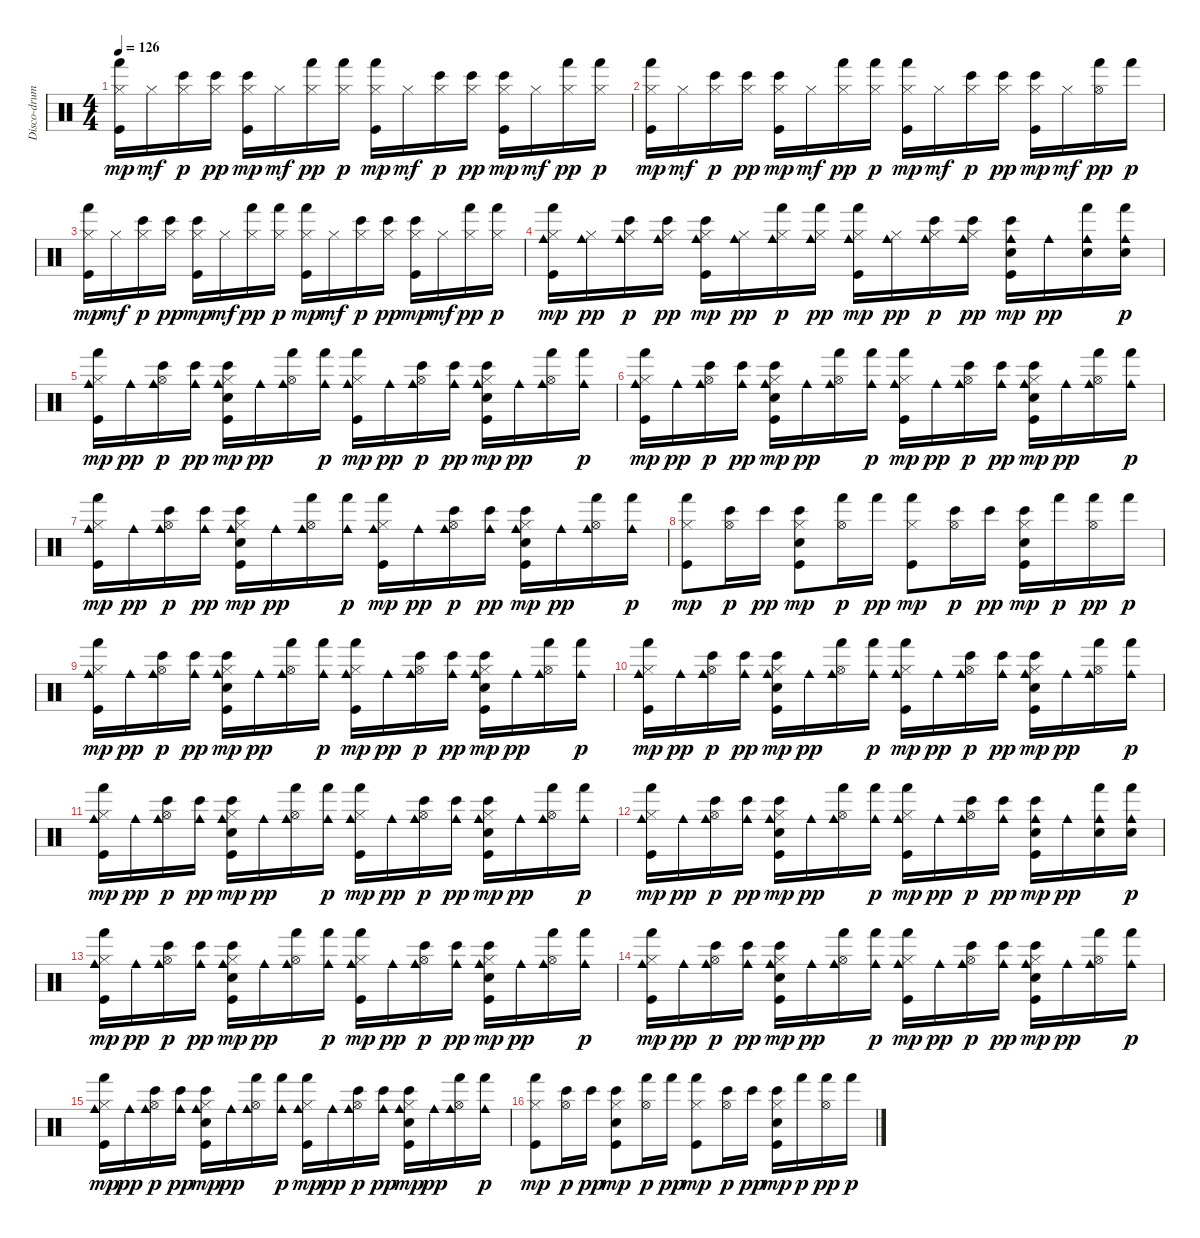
\track ("Disco-drums !" "Disco-drum") {instrument percussion}
\staff {score}
\articulation defaults
\ts (4 4)
\tempo 126
\clef neutral
\ks c
("Hi-Hat (closed)" "Kick (hit)" "Hand (hit)").16{dy mp} "Hi-Hat (closed)".16{dy mf} ("Hi-Hat (closed)" "Bongo High (hit)").16{dy p} ("Hi-Hat (closed)" "Bongo High (hit)").16{dy pp} ("Hi-Hat (closed)" "Kick (hit)" "Bongo High (hit)").16{dy mp} "Hi-Hat (closed)".16{dy mf} ("Hi-Hat (closed)" "Hand (hit)").16{dy pp} ("Hi-Hat (closed)" "Hand (hit)").16{dy p} ("Hi-Hat (closed)" "Kick (hit)" "Hand (hit)").16{dy mp} "Hi-Hat (closed)".16{dy mf} ("Hi-Hat (closed)" "Bongo High (hit)").16{dy p} ("Hi-Hat (closed)" "Bongo High (hit)").16{dy pp} ("Hi-Hat (closed)" "Kick (hit)" "Bongo High (hit)").16{dy mp} "Hi-Hat (closed)".16{dy mf} ("Hi-Hat (closed)" "Hand (hit)").16{dy pp} ("Hi-Hat (closed)" "Hand (hit)").16{dy p} |
("Hi-Hat (closed)" "Kick (hit)" "Hand (hit)").16{dy mp} "Hi-Hat (closed)".16{dy mf} ("Hi-Hat (closed)" "Bongo High (hit)").16{dy p} ("Hi-Hat (closed)" "Bongo High (hit)").16{dy pp} ("Hi-Hat (closed)" "Kick (hit)" "Bongo High (hit)").16{dy mp} "Hi-Hat (closed)".16{dy mf} ("Hi-Hat (closed)" "Hand (hit)").16{dy pp} ("Hi-Hat (closed)" "Hand (hit)").16{dy p} ("Hi-Hat (closed)" "Kick (hit)" "Hand (hit)").16{dy mp} "Hi-Hat (closed)".16{dy mf} ("Hi-Hat (closed)" "Bongo High (hit)").16{dy p} ("Hi-Hat (closed)" "Bongo High (hit)").16{dy pp} ("Hi-Hat (closed)" "Kick (hit)" "Bongo High (hit)").16{dy mp} "Hi-Hat (closed)".16{dy mf} ("Hi-Hat (open)" "Hand (hit)").16{dy pp} "Hand (hit)".16{dy p} |
("Hi-Hat (closed)" "Kick (hit)" "Hand (hit)").16{dy mp} "Hi-Hat (closed)".16{dy mf} ("Hi-Hat (closed)" "Bongo High (hit)").16{dy p} ("Hi-Hat (closed)" "Bongo High (hit)").16{dy pp} ("Hi-Hat (closed)" "Kick (hit)" "Bongo High (hit)").16{dy mp} "Hi-Hat (closed)".16{dy mf} ("Hi-Hat (closed)" "Hand (hit)").16{dy pp} ("Hi-Hat (closed)" "Hand (hit)").16{dy p} ("Hi-Hat (closed)" "Kick (hit)" "Hand (hit)").16{dy mp} "Hi-Hat (closed)".16{dy mf} ("Hi-Hat (closed)" "Bongo High (hit)").16{dy p} ("Hi-Hat (closed)" "Bongo High (hit)").16{dy pp} ("Hi-Hat (closed)" "Kick (hit)" "Bongo High (hit)").16{dy mp} "Hi-Hat (closed)".16{dy mf} ("Hi-Hat (closed)" "Hand (hit)").16{dy pp} ("Hi-Hat (closed)" "Hand (hit)").16{dy p} |
("Hi-Hat (closed)" "Kick (hit)" "Cowbell medium (hit)" "Hand (hit)").16{dy mp} ("Hi-Hat (closed)" "Cowbell medium (hit)").16{dy pp} ("Hi-Hat (closed)" "Cowbell medium (hit)" "Bongo High (hit)").16{dy p} ("Hi-Hat (closed)" "Cowbell medium (hit)" "Bongo High (hit)").16{dy pp} ("Hi-Hat (closed)" "Kick (hit)" "Cowbell medium (hit)" "Bongo High (hit)").16{dy mp} ("Hi-Hat (closed)" "Cowbell medium (hit)").16{dy pp} ("Hi-Hat (closed)" "Cowbell medium (hit)" "Hand (hit)").16{dy p} ("Hi-Hat (closed)" "Cowbell medium (hit)" "Hand (hit)").16{dy pp} ("Hi-Hat (closed)" "Kick (hit)" "Cowbell medium (hit)" "Hand (hit)").16{dy mp} ("Hi-Hat (closed)" "Cowbell medium (hit)").16{dy pp} ("Hi-Hat (closed)" "Cowbell medium (hit)" "Bongo High (hit)").16{dy p} ("Hi-Hat (closed)" "Cowbell medium (hit)" "Bongo High (hit)").16{dy pp} ("Kick (hit)" "Snare (hit) 2" "Cowbell medium (hit)" "Bongo High (hit)").16{dy mp} "Cowbell medium (hit)".16{dy pp} ("Snare (hit) 2" "Cowbell medium (hit)" "Hand (hit)").16 ("Snare (hit) 2" "Cowbell medium (hit)" "Hand (hit)").16{dy p} |
("Hi-Hat (closed)" "Kick (hit)" "Cowbell medium (hit)" "Hand (hit)").16{dy mp} "Cowbell medium (hit)".16{dy pp} ("Hi-Hat (open)" "Cowbell medium (hit)" "Bongo High (hit)").16{dy p} ("Cowbell medium (hit)" "Bongo High (hit)").16{dy pp} ("Hi-Hat (closed)" "Kick (hit)" "Snare (hit) 2" "Cowbell medium (hit)" "Bongo High (hit)").16{dy mp} "Cowbell medium (hit)".16{dy pp} ("Hi-Hat (open)" "Cowbell medium (hit)" "Hand (hit)").16 ("Cowbell medium (hit)" "Hand (hit)").16{dy p} ("Hi-Hat (closed)" "Kick (hit)" "Cowbell medium (hit)" "Hand (hit)").16{dy mp} "Cowbell medium (hit)".16{dy pp} ("Hi-Hat (open)" "Cowbell medium (hit)" "Bongo High (hit)").16{dy p} ("Cowbell medium (hit)" "Bongo High (hit)").16{dy pp} ("Hi-Hat (closed)" "Kick (hit)" "Snare (hit) 2" "Cowbell medium (hit)" "Bongo High (hit)").16{dy mp} "Cowbell medium (hit)".16{dy pp} ("Hi-Hat (open)" "Cowbell medium (hit)" "Hand (hit)").16 ("Cowbell medium (hit)" "Hand (hit)").16{dy p} |
("Hi-Hat (closed)" "Kick (hit)" "Cowbell medium (hit)" "Hand (hit)").16{dy mp} "Cowbell medium (hit)".16{dy pp} ("Hi-Hat (open)" "Cowbell medium (hit)" "Bongo High (hit)").16{dy p} ("Cowbell medium (hit)" "Bongo High (hit)").16{dy pp} ("Hi-Hat (closed)" "Kick (hit)" "Snare (hit) 2" "Cowbell medium (hit)" "Bongo High (hit)").16{dy mp} "Cowbell medium (hit)".16{dy pp} ("Hi-Hat (open)" "Cowbell medium (hit)" "Hand (hit)").16 ("Cowbell medium (hit)" "Hand (hit)").16{dy p} ("Hi-Hat (closed)" "Kick (hit)" "Cowbell medium (hit)" "Hand (hit)").16{dy mp} "Cowbell medium (hit)".16{dy pp} ("Hi-Hat (open)" "Cowbell medium (hit)" "Bongo High (hit)").16{dy p} ("Cowbell medium (hit)" "Bongo High (hit)").16{dy pp} ("Hi-Hat (closed)" "Kick (hit)" "Snare (hit) 2" "Cowbell medium (hit)" "Bongo High (hit)").16{dy mp} "Cowbell medium (hit)".16{dy pp} ("Hi-Hat (open)" "Cowbell medium (hit)" "Hand (hit)").16 ("Cowbell medium (hit)" "Hand (hit)").16{dy p} |
("Hi-Hat (closed)" "Kick (hit)" "Cowbell medium (hit)" "Hand (hit)").16{dy mp} "Cowbell medium (hit)".16{dy pp} ("Hi-Hat (open)" "Cowbell medium (hit)" "Bongo High (hit)").16{dy p} ("Cowbell medium (hit)" "Bongo High (hit)").16{dy pp} ("Hi-Hat (closed)" "Kick (hit)" "Snare (hit) 2" "Cowbell medium (hit)" "Bongo High (hit)").16{dy mp} "Cowbell medium (hit)".16{dy pp} ("Hi-Hat (open)" "Cowbell medium (hit)" "Hand (hit)").16 ("Cowbell medium (hit)" "Hand (hit)").16{dy p} ("Hi-Hat (closed)" "Kick (hit)" "Cowbell medium (hit)" "Hand (hit)").16{dy mp} "Cowbell medium (hit)".16{dy pp} ("Hi-Hat (open)" "Cowbell medium (hit)" "Bongo High (hit)").16{dy p} ("Cowbell medium (hit)" "Bongo High (hit)").16{dy pp} ("Hi-Hat (closed)" "Kick (hit)" "Snare (hit) 2" "Cowbell medium (hit)" "Bongo High (hit)").16{dy mp} "Cowbell medium (hit)".16{dy pp} ("Hi-Hat (open)" "Cowbell medium (hit)" "Hand (hit)").16 ("Cowbell medium (hit)" "Hand (hit)").16{dy p} |
("Hi-Hat (closed)" "Kick (hit)" "Hand (hit)").8{dy mp} ("Hi-Hat (open)" "Bongo High (hit)").16{dy p} "Bongo High (hit)".16{dy pp} ("Hi-Hat (closed)" "Kick (hit)" "Snare (hit) 2" "Bongo High (hit)").8{dy mp} ("Hi-Hat (open)" "Hand (hit)").16{dy p} "Hand (hit)".16{dy pp} ("Hi-Hat (closed)" "Kick (hit)" "Hand (hit)").8{dy mp} ("Hi-Hat (open)" "Bongo High (hit)").16{dy p} "Bongo High (hit)".16{dy pp} ("Hi-Hat (closed)" "Kick (hit)" "Snare (hit) 2" "Bongo High (hit)").16{dy mp} "Hand (hit)".16{dy p} ("Hi-Hat (open)" "Hand (hit)").16{dy pp} "Hand (hit)".16{dy p} |
("Hi-Hat (closed)" "Kick (hit)" "Cowbell medium (hit)" "Hand (hit)").16{dy mp} "Cowbell medium (hit)".16{dy pp} ("Hi-Hat (open)" "Cowbell medium (hit)" "Bongo High (hit)").16{dy p} ("Cowbell medium (hit)" "Bongo High (hit)").16{dy pp} ("Hi-Hat (closed)" "Kick (hit)" "Snare (hit) 2" "Cowbell medium (hit)" "Bongo High (hit)").16{dy mp} "Cowbell medium (hit)".16{dy pp} ("Hi-Hat (open)" "Cowbell medium (hit)" "Hand (hit)").16 ("Cowbell medium (hit)" "Hand (hit)").16{dy p} ("Hi-Hat (closed)" "Kick (hit)" "Cowbell medium (hit)" "Hand (hit)").16{dy mp} "Cowbell medium (hit)".16{dy pp} ("Hi-Hat (open)" "Cowbell medium (hit)" "Bongo High (hit)").16{dy p} ("Cowbell medium (hit)" "Bongo High (hit)").16{dy pp} ("Hi-Hat (closed)" "Kick (hit)" "Snare (hit) 2" "Cowbell medium (hit)" "Bongo High (hit)").16{dy mp} "Cowbell medium (hit)".16{dy pp} ("Hi-Hat (open)" "Cowbell medium (hit)" "Hand (hit)").16 ("Cowbell medium (hit)" "Hand (hit)").16{dy p} |
("Hi-Hat (closed)" "Kick (hit)" "Cowbell medium (hit)" "Hand (hit)").16{dy mp} "Cowbell medium (hit)".16{dy pp} ("Hi-Hat (open)" "Cowbell medium (hit)" "Bongo High (hit)").16{dy p} ("Cowbell medium (hit)" "Bongo High (hit)").16{dy pp} ("Hi-Hat (closed)" "Kick (hit)" "Snare (hit) 2" "Cowbell medium (hit)" "Bongo High (hit)").16{dy mp} "Cowbell medium (hit)".16{dy pp} ("Hi-Hat (open)" "Cowbell medium (hit)" "Hand (hit)").16 ("Cowbell medium (hit)" "Hand (hit)").16{dy p} ("Hi-Hat (closed)" "Kick (hit)" "Cowbell medium (hit)" "Hand (hit)").16{dy mp} "Cowbell medium (hit)".16{dy pp} ("Hi-Hat (open)" "Cowbell medium (hit)" "Bongo High (hit)").16{dy p} ("Cowbell medium (hit)" "Bongo High (hit)").16{dy pp} ("Hi-Hat (closed)" "Kick (hit)" "Snare (hit) 2" "Cowbell medium (hit)" "Bongo High (hit)").16{dy mp} "Cowbell medium (hit)".16{dy pp} ("Hi-Hat (open)" "Cowbell medium (hit)" "Hand (hit)").16 ("Cowbell medium (hit)" "Hand (hit)").16{dy p} |
("Hi-Hat (closed)" "Kick (hit)" "Cowbell medium (hit)" "Hand (hit)").16{dy mp} "Cowbell medium (hit)".16{dy pp} ("Hi-Hat (open)" "Cowbell medium (hit)" "Bongo High (hit)").16{dy p} ("Cowbell medium (hit)" "Bongo High (hit)").16{dy pp} ("Hi-Hat (closed)" "Kick (hit)" "Snare (hit) 2" "Cowbell medium (hit)" "Bongo High (hit)").16{dy mp} "Cowbell medium (hit)".16{dy pp} ("Hi-Hat (open)" "Cowbell medium (hit)" "Hand (hit)").16 ("Cowbell medium (hit)" "Hand (hit)").16{dy p} ("Hi-Hat (closed)" "Kick (hit)" "Cowbell medium (hit)" "Hand (hit)").16{dy mp} "Cowbell medium (hit)".16{dy pp} ("Hi-Hat (open)" "Cowbell medium (hit)" "Bongo High (hit)").16{dy p} ("Cowbell medium (hit)" "Bongo High (hit)").16{dy pp} ("Hi-Hat (closed)" "Kick (hit)" "Snare (hit) 2" "Cowbell medium (hit)" "Bongo High (hit)").16{dy mp} "Cowbell medium (hit)".16{dy pp} ("Hi-Hat (open)" "Cowbell medium (hit)" "Hand (hit)").16 ("Cowbell medium (hit)" "Hand (hit)").16{dy p} |
("Hi-Hat (closed)" "Kick (hit)" "Cowbell medium (hit)" "Hand (hit)").16{dy mp} "Cowbell medium (hit)".16{dy pp} ("Hi-Hat (open)" "Cowbell medium (hit)" "Bongo High (hit)").16{dy p} ("Cowbell medium (hit)" "Bongo High (hit)").16{dy pp} ("Hi-Hat (closed)" "Kick (hit)" "Snare (hit) 2" "Cowbell medium (hit)" "Bongo High (hit)").16{dy mp} "Cowbell medium (hit)".16{dy pp} ("Hi-Hat (open)" "Cowbell medium (hit)" "Hand (hit)").16 ("Cowbell medium (hit)" "Hand (hit)").16{dy p} ("Hi-Hat (closed)" "Kick (hit)" "Cowbell medium (hit)" "Hand (hit)").16{dy mp} "Cowbell medium (hit)".16{dy pp} ("Hi-Hat (open)" "Cowbell medium (hit)" "Bongo High (hit)").16{dy p} ("Cowbell medium (hit)" "Bongo High (hit)").16{dy pp} ("Kick (hit)" "Snare (hit) 2" "Cowbell medium (hit)" "Bongo High (hit)").16{dy mp} "Cowbell medium (hit)".16{dy pp} ("Snare (hit) 2" "Cowbell medium (hit)" "Hand (hit)").16 ("Snare (hit) 2" "Cowbell medium (hit)" "Hand (hit)").16{dy p} |
("Hi-Hat (closed)" "Kick (hit)" "Cowbell medium (hit)" "Hand (hit)").16{dy mp} "Cowbell medium (hit)".16{dy pp} ("Hi-Hat (open)" "Cowbell medium (hit)" "Bongo High (hit)").16{dy p} ("Cowbell medium (hit)" "Bongo High (hit)").16{dy pp} ("Hi-Hat (closed)" "Kick (hit)" "Snare (hit) 2" "Cowbell medium (hit)" "Bongo High (hit)").16{dy mp} "Cowbell medium (hit)".16{dy pp} ("Hi-Hat (open)" "Cowbell medium (hit)" "Hand (hit)").16 ("Cowbell medium (hit)" "Hand (hit)").16{dy p} ("Hi-Hat (closed)" "Kick (hit)" "Cowbell medium (hit)" "Hand (hit)").16{dy mp} "Cowbell medium (hit)".16{dy pp} ("Hi-Hat (open)" "Cowbell medium (hit)" "Bongo High (hit)").16{dy p} ("Cowbell medium (hit)" "Bongo High (hit)").16{dy pp} ("Hi-Hat (closed)" "Kick (hit)" "Snare (hit) 2" "Cowbell medium (hit)" "Bongo High (hit)").16{dy mp} "Cowbell medium (hit)".16{dy pp} ("Hi-Hat (open)" "Cowbell medium (hit)" "Hand (hit)").16 ("Cowbell medium (hit)" "Hand (hit)").16{dy p} |
("Hi-Hat (closed)" "Kick (hit)" "Cowbell medium (hit)" "Hand (hit)").16{dy mp} "Cowbell medium (hit)".16{dy pp} ("Hi-Hat (open)" "Cowbell medium (hit)" "Bongo High (hit)").16{dy p} ("Cowbell medium (hit)" "Bongo High (hit)").16{dy pp} ("Hi-Hat (closed)" "Kick (hit)" "Snare (hit) 2" "Cowbell medium (hit)" "Bongo High (hit)").16{dy mp} "Cowbell medium (hit)".16{dy pp} ("Hi-Hat (open)" "Cowbell medium (hit)" "Hand (hit)").16 ("Cowbell medium (hit)" "Hand (hit)").16{dy p} ("Hi-Hat (closed)" "Kick (hit)" "Cowbell medium (hit)" "Hand (hit)").16{dy mp} "Cowbell medium (hit)".16{dy pp} ("Hi-Hat (open)" "Cowbell medium (hit)" "Bongo High (hit)").16{dy p} ("Cowbell medium (hit)" "Bongo High (hit)").16{dy pp} ("Hi-Hat (closed)" "Kick (hit)" "Snare (hit) 2" "Cowbell medium (hit)" "Bongo High (hit)").16{dy mp} "Cowbell medium (hit)".16{dy pp} ("Hi-Hat (open)" "Cowbell medium (hit)" "Hand (hit)").16 ("Cowbell medium (hit)" "Hand (hit)").16{dy p} |
("Hi-Hat (closed)" "Kick (hit)" "Cowbell medium (hit)" "Hand (hit)").16{dy mp} "Cowbell medium (hit)".16{dy pp} ("Hi-Hat (open)" "Cowbell medium (hit)" "Bongo High (hit)").16{dy p} ("Cowbell medium (hit)" "Bongo High (hit)").16{dy pp} ("Hi-Hat (closed)" "Kick (hit)" "Snare (hit) 2" "Cowbell medium (hit)" "Bongo High (hit)").16{dy mp} "Cowbell medium (hit)".16{dy pp} ("Hi-Hat (open)" "Cowbell medium (hit)" "Hand (hit)").16 ("Cowbell medium (hit)" "Hand (hit)").16{dy p} ("Hi-Hat (closed)" "Kick (hit)" "Cowbell medium (hit)" "Hand (hit)").16{dy mp} "Cowbell medium (hit)".16{dy pp} ("Hi-Hat (open)" "Cowbell medium (hit)" "Bongo High (hit)").16{dy p} ("Cowbell medium (hit)" "Bongo High (hit)").16{dy pp} ("Hi-Hat (closed)" "Kick (hit)" "Snare (hit) 2" "Cowbell medium (hit)" "Bongo High (hit)").16{dy mp} "Cowbell medium (hit)".16{dy pp} ("Hi-Hat (open)" "Cowbell medium (hit)" "Hand (hit)").16 ("Cowbell medium (hit)" "Hand (hit)").16{dy p} |
("Hi-Hat (closed)" "Kick (hit)" "Hand (hit)").8{dy mp} ("Hi-Hat (open)" "Bongo High (hit)").16{dy p} "Bongo High (hit)".16{dy pp} ("Hi-Hat (closed)" "Kick (hit)" "Snare (hit) 2" "Bongo High (hit)").8{dy mp} ("Hi-Hat (open)" "Hand (hit)").16{dy p} "Hand (hit)".16{dy pp} ("Hi-Hat (closed)" "Kick (hit)" "Hand (hit)").8{dy mp} ("Hi-Hat (open)" "Bongo High (hit)").16{dy p} "Bongo High (hit)".16{dy pp} ("Hi-Hat (closed)" "Kick (hit)" "Snare (hit) 2" "Bongo High (hit)").16{dy mp} "Hand (hit)".16{dy p} ("Hi-Hat (open)" "Hand (hit)").16{dy pp} "Hand (hit)".16{dy p}
